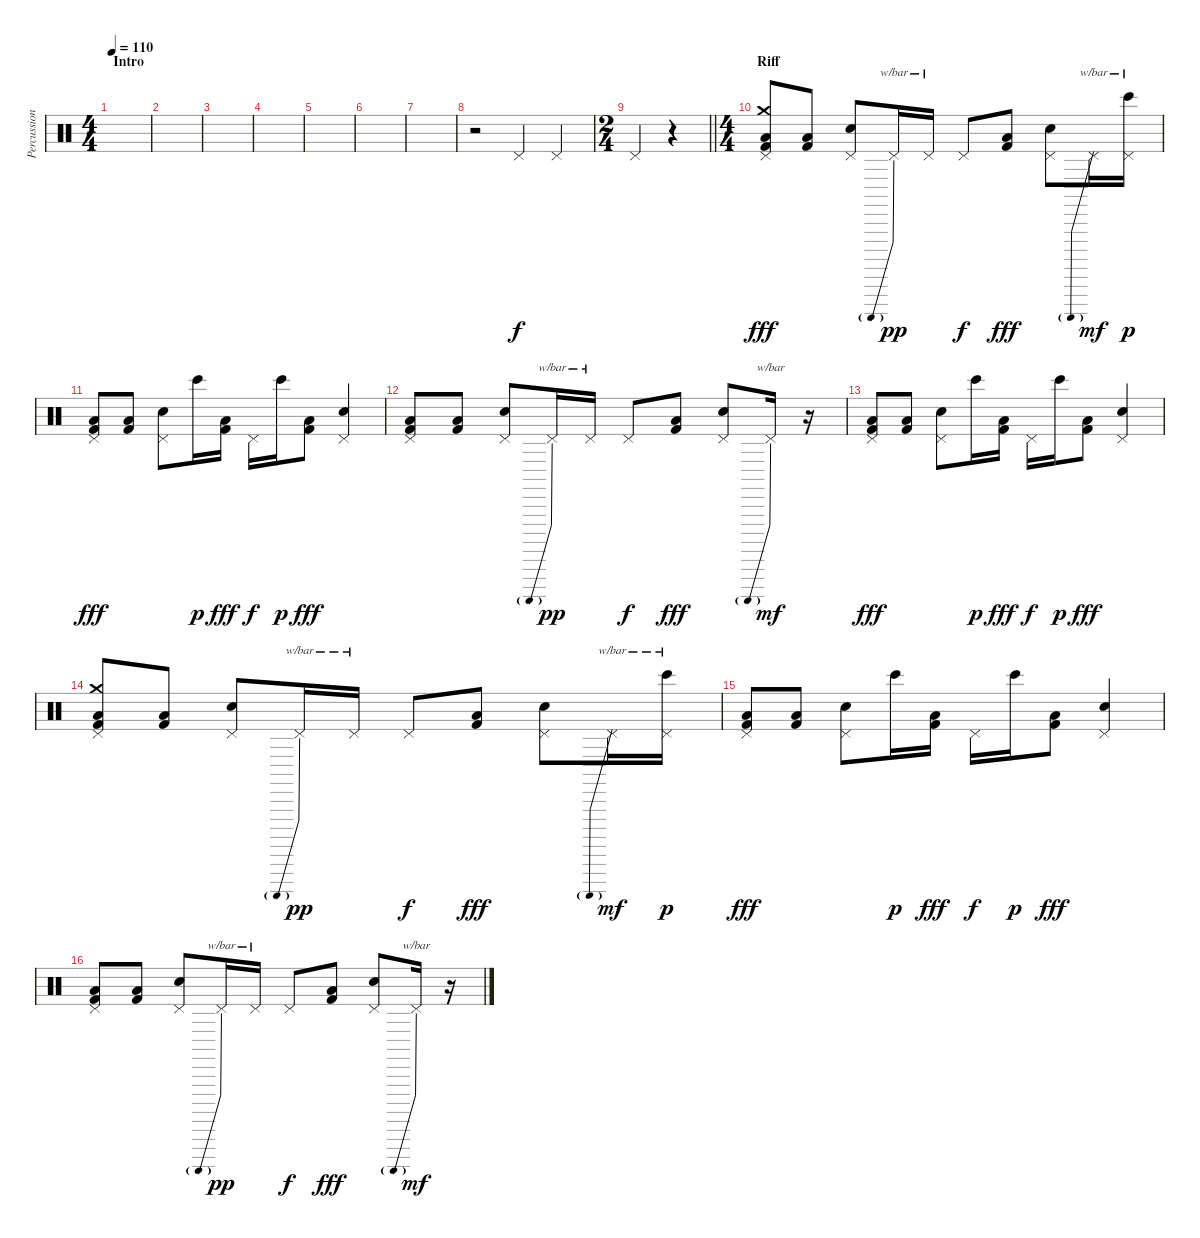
\track ("Percussion" "Percussion") {instrument percussion}
\staff {score}
\articulation defaults
\ts (4 4)
\section ("" "Intro")
\tempo 110
\clef neutral
\ks c
|
|
|
|
|
|
|
r.2 "Pedal Hi-Hat (hit)".4 "Pedal Hi-Hat (hit)".4 |
\ts (2 4)
\barLineRight lightlight "Pedal Hi-Hat (hit)".4
r.4 |
\ts (4 4)
\section ("" "Riff")
("Crash medium (hit)" "Pedal Hi-Hat (hit)" "Kick (hit) 2" "Low Floor Tom (hit)"{be (hold 0 0 60 0)}).8{dy fff} ("Kick (hit) 2" "Low Floor Tom (hit)"{be (hold 0 0 60 0)}).8 ("Pedal Hi-Hat (hit)" "Hand Clap (hit)").8 "Pedal Hi-Hat (hit)".16{tbe (predive default 0 -24 60 -24) dy pp} "Pedal Hi-Hat (hit)".16{tbe (hold default 0 -14 60 -14)} "Pedal Hi-Hat (hit)".8{dy f} ("Kick (hit) 2" "Low Floor Tom (hit)"{be (hold 0 0 60 0)}).8{dy fff} ("Pedal Hi-Hat (hit)" "Hand Clap (hit)").8 "Pedal Hi-Hat (hit)".16{tbe (predive default 0 -24 60 -24) dy mf} ("Pedal Hi-Hat (hit)" "Bongo High (hit)").16{tbe (hold default 0 -14 60 -14) dy p} |
("Pedal Hi-Hat (hit)" "Kick (hit) 2" "Low Floor Tom (hit)"{be (hold 0 0 60 0)}).8{dy fff} ("Kick (hit) 2" "Low Floor Tom (hit)"{be (hold 0 0 60 0)}).8 ("Pedal Hi-Hat (hit)" "Hand Clap (hit)").8 "Bongo High (hit)".16{dy p} ("Kick (hit) 2" "Low Floor Tom (hit)"{be (hold 0 0 60 0)}).16{dy fff} "Pedal Hi-Hat (hit)".16{dy f} "Bongo High (hit)".16{dy p} ("Kick (hit) 2" "Low Floor Tom (hit)"{be (hold 0 0 60 0)}).8{dy fff} ("Pedal Hi-Hat (hit)" "Hand Clap (hit)").4 |
("Pedal Hi-Hat (hit)" "Kick (hit) 2" "Low Floor Tom (hit)"{be (hold 0 0 60 0)}).8 ("Kick (hit) 2" "Low Floor Tom (hit)"{be (hold 0 0 60 0)}).8 ("Pedal Hi-Hat (hit)" "Hand Clap (hit)").8 "Pedal Hi-Hat (hit)".16{tbe (predive default 0 -24 60 -24) dy pp} "Pedal Hi-Hat (hit)".16{tbe (hold default 0 -14 60 -14)} "Pedal Hi-Hat (hit)".8{dy f} ("Kick (hit) 2" "Low Floor Tom (hit)"{be (hold 0 0 60 0)}).8{dy fff} ("Pedal Hi-Hat (hit)" "Hand Clap (hit)").8 "Pedal Hi-Hat (hit)".16{tbe (predive default 0 -24 60 -24) dy mf} r.16 |
("Pedal Hi-Hat (hit)" "Kick (hit) 2" "Low Floor Tom (hit)"{be (hold 0 0 60 0)}).8{dy fff} ("Kick (hit) 2" "Low Floor Tom (hit)"{be (hold 0 0 60 0)}).8 ("Pedal Hi-Hat (hit)" "Hand Clap (hit)").8 "Bongo High (hit)".16{dy p} ("Kick (hit) 2" "Low Floor Tom (hit)"{be (hold 0 0 60 0)}).16{dy fff} "Pedal Hi-Hat (hit)".16{dy f} "Bongo High (hit)".16{dy p} ("Kick (hit) 2" "Low Floor Tom (hit)"{be (hold 0 0 60 0)}).8{dy fff} ("Pedal Hi-Hat (hit)" "Hand Clap (hit)").4 |
("Crash medium (hit)" "Pedal Hi-Hat (hit)" "Kick (hit) 2" "Low Floor Tom (hit)"{be (hold 0 0 60 0)}).8 ("Kick (hit) 2" "Low Floor Tom (hit)"{be (hold 0 0 60 0)}).8 ("Pedal Hi-Hat (hit)" "Hand Clap (hit)").8 "Pedal Hi-Hat (hit)".16{tbe (predive default 0 -24 60 -24) dy pp} "Pedal Hi-Hat (hit)".16{tbe (hold default 0 -14 60 -14)} "Pedal Hi-Hat (hit)".8{dy f} ("Kick (hit) 2" "Low Floor Tom (hit)"{be (hold 0 0 60 0)}).8{dy fff} ("Pedal Hi-Hat (hit)" "Hand Clap (hit)").8 "Pedal Hi-Hat (hit)".16{tbe (predive default 0 -24 60 -24) dy mf} ("Pedal Hi-Hat (hit)" "Bongo High (hit)").16{tbe (hold default 0 -14 60 -14) dy p} |
("Pedal Hi-Hat (hit)" "Kick (hit) 2" "Low Floor Tom (hit)"{be (hold 0 0 60 0)}).8{dy fff} ("Kick (hit) 2" "Low Floor Tom (hit)"{be (hold 0 0 60 0)}).8 ("Pedal Hi-Hat (hit)" "Hand Clap (hit)").8 "Bongo High (hit)".16{dy p} ("Kick (hit) 2" "Low Floor Tom (hit)"{be (hold 0 0 60 0)}).16{dy fff} "Pedal Hi-Hat (hit)".16{dy f} "Bongo High (hit)".16{dy p} ("Kick (hit) 2" "Low Floor Tom (hit)"{be (hold 0 0 60 0)}).8{dy fff} ("Pedal Hi-Hat (hit)" "Hand Clap (hit)").4 |
("Pedal Hi-Hat (hit)" "Kick (hit) 2" "Low Floor Tom (hit)"{be (hold 0 0 60 0)}).8 ("Kick (hit) 2" "Low Floor Tom (hit)"{be (hold 0 0 60 0)}).8 ("Pedal Hi-Hat (hit)" "Hand Clap (hit)").8 "Pedal Hi-Hat (hit)".16{tbe (predive default 0 -24 60 -24) dy pp} "Pedal Hi-Hat (hit)".16{tbe (hold default 0 -14 60 -14)} "Pedal Hi-Hat (hit)".8{dy f} ("Kick (hit) 2" "Low Floor Tom (hit)"{be (hold 0 0 60 0)}).8{dy fff} ("Pedal Hi-Hat (hit)" "Hand Clap (hit)").8 "Pedal Hi-Hat (hit)".16{tbe (predive default 0 -24 60 -24) dy mf} r.16
